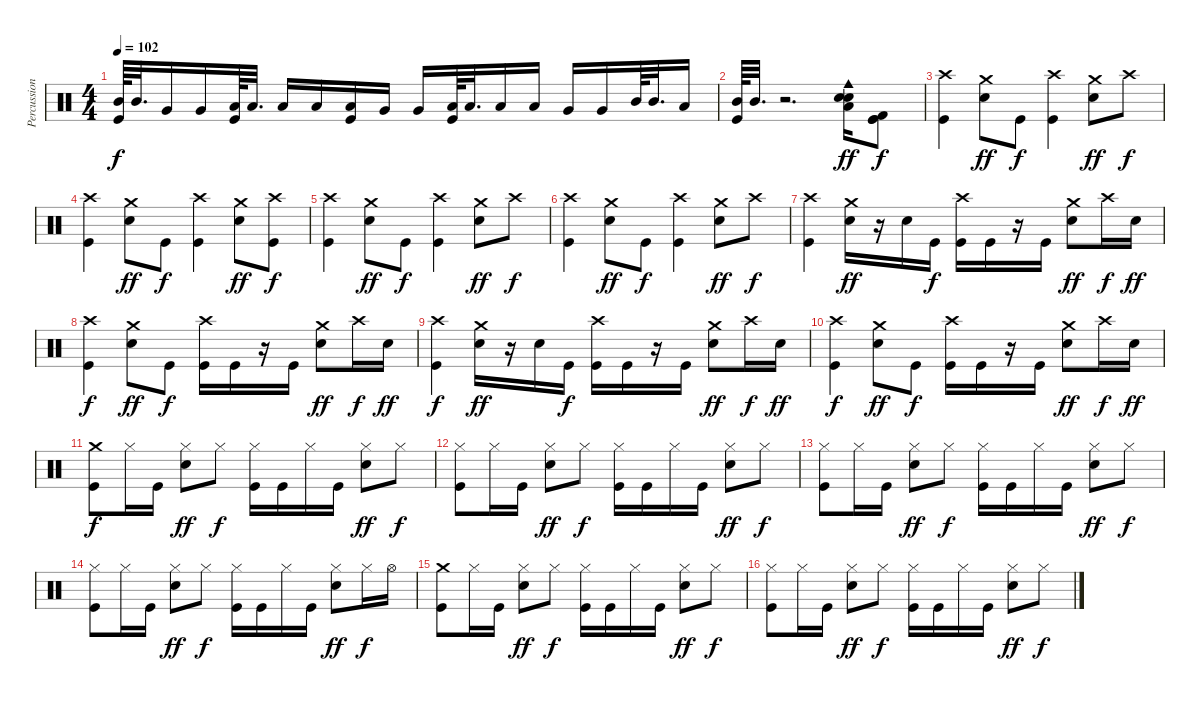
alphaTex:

\track ("Percussion" "Percussion") {instrument percussion}
\staff {score}
\articulation defaults
\ts (4 4)
\tempo 102
\clef neutral
\ks c
("Mid Tom (hit)" "Kick (hit)").64{dy f} "Mid Tom (hit)".32{d} "Very Low Tom (hit)".16 "Very Low Tom (hit)".16 ("Low Tom (hit)" "Kick (hit)").64 "Low Tom (hit)".32{d} "Low Floor Tom (hit)".16 "Low Floor Tom (hit)".16 ("Low Tom (hit)" "Kick (hit)").16 "Very Low Tom (hit)".16 "Very Low Tom (hit)".16 ("Low Tom (hit)" "Kick (hit)").64 "Low Tom (hit)".32{d} "Low Floor Tom (hit)".16 "Low Floor Tom (hit)".16 "Very Low Tom (hit)".16 "Very Low Tom (hit)".16 "Mid Tom (hit)".64 "Mid Tom (hit)".32{d} "Low Tom (hit)".16 |
("Mid Tom (hit)" "Kick (hit)").64 "Mid Tom (hit)".32{d} r.2{d} ("Snare (hit) 2" "Low Tom (hit)" "Electric Snare (hit)" "Cowbell medium (hit)").16{dy ff} ("Kick (hit) 2" "Kick (hit)" "Kick (hit)").8{dy f} |
("Crash high (hit)" "Kick (hit)").4{volume 12} ("Crash medium (hit)" "Snare (hit) 2").8{dy ff} "Kick (hit)".8{dy f} ("Crash high (hit)" "Kick (hit)").4 ("Crash medium (hit)" "Snare (hit) 2").8{dy ff} "Crash high (hit)".8{dy f} |
("Crash high (hit)" "Kick (hit)").4 ("Crash medium (hit)" "Snare (hit) 2").8{dy ff} "Kick (hit)".8{dy f} ("Crash high (hit)" "Kick (hit)").4 ("Crash medium (hit)" "Snare (hit) 2").8{dy ff} ("Crash high (hit)" "Kick (hit)").8{dy f} |
("Crash high (hit)" "Kick (hit)").4 ("Crash medium (hit)" "Snare (hit) 2").8{dy ff} "Kick (hit)".8{dy f} ("Crash high (hit)" "Kick (hit)").4 ("Crash medium (hit)" "Snare (hit) 2").8{dy ff} "Crash high (hit)".8{dy f} |
("Crash high (hit)" "Kick (hit)").4 ("Crash medium (hit)" "Snare (hit) 2").8{dy ff} "Kick (hit)".8{dy f} ("Crash high (hit)" "Kick (hit)").4 ("Crash medium (hit)" "Snare (hit) 2").8{dy ff} "Crash high (hit)".8{dy f} |
("Crash high (hit)" "Kick (hit)").4 ("Crash medium (hit)" "Snare (hit) 2").16{dy ff} r.16 "Snare (hit) 2".16 "Kick (hit)".16{dy f} ("Crash high (hit)" "Kick (hit)").16 "Kick (hit)".16 r.16 "Kick (hit)".16 ("Crash medium (hit)" "Snare (hit) 2").8{dy ff} "Crash high (hit)".16{dy f} "Snare (hit) 2".16{dy ff} |
("Crash high (hit)" "Kick (hit)").4{dy f} ("Crash medium (hit)" "Snare (hit) 2").8{dy ff} "Kick (hit)".8{dy f} ("Crash high (hit)" "Kick (hit)").16 "Kick (hit)".16 r.16 "Kick (hit)".16 ("Crash medium (hit)" "Snare (hit) 2").8{dy ff} "Crash high (hit)".16{dy f} "Snare (hit) 2".16{dy ff} |
("Crash high (hit)" "Kick (hit)").4{dy f} ("Crash medium (hit)" "Snare (hit) 2").16{dy ff} r.16 "Snare (hit) 2".16 "Kick (hit)".16{dy f} ("Crash high (hit)" "Kick (hit)").16 "Kick (hit)".16 r.16 "Kick (hit)".16 ("Crash medium (hit)" "Snare (hit) 2").8{dy ff} "Crash high (hit)".16{dy f} "Snare (hit) 2".16{dy ff} |
("Crash high (hit)" "Kick (hit)").4{dy f} ("Crash medium (hit)" "Snare (hit) 2").8{dy ff} "Kick (hit)".8{dy f} ("Crash high (hit)" "Kick (hit)").16 "Kick (hit)".16 r.16 "Kick (hit)".16 ("Crash medium (hit)" "Snare (hit) 2").8{dy ff} "Crash high (hit)".16{dy f} "Snare (hit) 2".16{dy ff} |
("Crash medium (hit)" "Kick (hit)").8{dy f volume 9} "Hi-Hat (closed)".16 "Kick (hit)".16 ("Hi-Hat (closed)" "Snare (hit) 2").8{dy ff} "Hi-Hat (closed)".8{dy f} ("Hi-Hat (closed)" "Kick (hit)").16 "Kick (hit)".16 "Hi-Hat (closed)".16 "Kick (hit)".16 ("Hi-Hat (closed)" "Snare (hit) 2").8{dy ff} "Hi-Hat (closed)".8{dy f} |
("Hi-Hat (closed)" "Kick (hit)").8 "Hi-Hat (closed)".16 "Kick (hit)".16 ("Hi-Hat (closed)" "Snare (hit) 2").8{dy ff} "Hi-Hat (closed)".8{dy f} ("Hi-Hat (closed)" "Kick (hit)").16 "Kick (hit)".16 "Hi-Hat (closed)".16 "Kick (hit)".16 ("Hi-Hat (closed)" "Snare (hit) 2").8{dy ff} "Hi-Hat (closed)".8{dy f} |
("Hi-Hat (closed)" "Kick (hit)").8 "Hi-Hat (closed)".16 "Kick (hit)".16 ("Hi-Hat (closed)" "Snare (hit) 2").8{dy ff} "Hi-Hat (closed)".8{dy f} ("Hi-Hat (closed)" "Kick (hit)").16 "Kick (hit)".16 "Hi-Hat (closed)".16 "Kick (hit)".16 ("Hi-Hat (closed)" "Snare (hit) 2").8{dy ff} "Hi-Hat (closed)".8{dy f} |
("Hi-Hat (closed)" "Kick (hit)").8 "Hi-Hat (closed)".16 "Kick (hit)".16 ("Hi-Hat (closed)" "Snare (hit) 2").8{dy ff} "Hi-Hat (closed)".8{dy f} ("Hi-Hat (closed)" "Kick (hit)").16 "Kick (hit)".16 "Hi-Hat (closed)".16 "Kick (hit)".16 ("Hi-Hat (closed)" "Snare (hit) 2").8{dy ff} "Hi-Hat (closed)".16{dy f} "Hi-Hat (open)".16 |
("Crash medium (hit)" "Kick (hit)").8 "Hi-Hat (closed)".16 "Kick (hit)".16 ("Hi-Hat (closed)" "Snare (hit) 2").8{dy ff} "Hi-Hat (closed)".8{dy f} ("Hi-Hat (closed)" "Kick (hit)").16 "Kick (hit)".16 "Hi-Hat (closed)".16 "Kick (hit)".16 ("Hi-Hat (closed)" "Snare (hit) 2").8{dy ff} "Hi-Hat (closed)".8{dy f} |
("Hi-Hat (closed)" "Kick (hit)").8 "Hi-Hat (closed)".16 "Kick (hit)".16 ("Hi-Hat (closed)" "Snare (hit) 2").8{dy ff} "Hi-Hat (closed)".8{dy f} ("Hi-Hat (closed)" "Kick (hit)").16 "Kick (hit)".16 "Hi-Hat (closed)".16 "Kick (hit)".16 ("Hi-Hat (closed)" "Snare (hit) 2").8{dy ff} "Hi-Hat (closed)".8{dy f}
